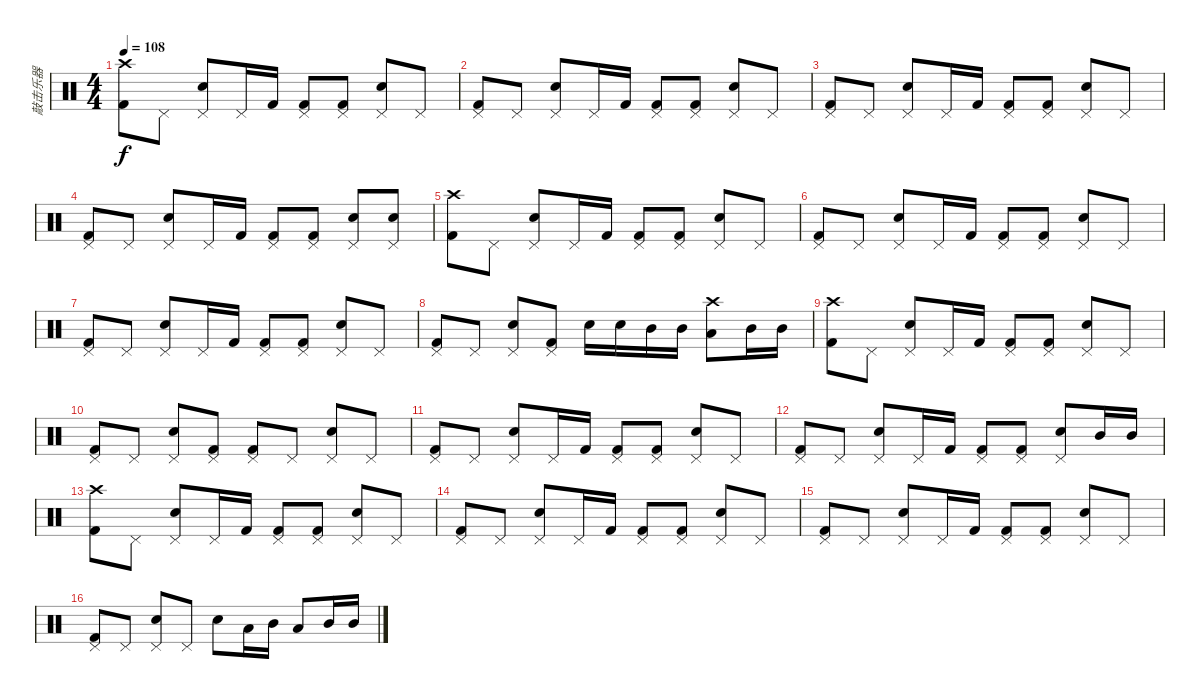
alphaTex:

\track ("敲击乐器" "敲击乐器") {instrument percussion}
\staff {score}
\articulation defaults
\ts (4 4)
\tempo 108
\clef neutral
\ks c
("Crash high (hit)" "Kick (hit) 2").8{dy f} "Pedal Hi-Hat (hit)".8 ("Pedal Hi-Hat (hit)" "Electric Snare (hit)").8 "Pedal Hi-Hat (hit)".16 "Kick (hit) 2".16 ("Pedal Hi-Hat (hit)" "Kick (hit) 2").8 ("Pedal Hi-Hat (hit)" "Kick (hit) 2").8 ("Pedal Hi-Hat (hit)" "Electric Snare (hit)").8 "Pedal Hi-Hat (hit)".8 |
("Pedal Hi-Hat (hit)" "Kick (hit) 2").8 "Pedal Hi-Hat (hit)".8 ("Pedal Hi-Hat (hit)" "Electric Snare (hit)").8 "Pedal Hi-Hat (hit)".16 "Kick (hit) 2".16 ("Pedal Hi-Hat (hit)" "Kick (hit) 2").8 ("Pedal Hi-Hat (hit)" "Kick (hit) 2").8 ("Pedal Hi-Hat (hit)" "Electric Snare (hit)").8 "Pedal Hi-Hat (hit)".8 |
("Pedal Hi-Hat (hit)" "Kick (hit) 2").8 "Pedal Hi-Hat (hit)".8 ("Pedal Hi-Hat (hit)" "Electric Snare (hit)").8 "Pedal Hi-Hat (hit)".16 "Kick (hit) 2".16 ("Pedal Hi-Hat (hit)" "Kick (hit) 2").8 ("Pedal Hi-Hat (hit)" "Kick (hit) 2").8 ("Pedal Hi-Hat (hit)" "Electric Snare (hit)").8 "Pedal Hi-Hat (hit)".8 |
("Pedal Hi-Hat (hit)" "Kick (hit) 2").8 "Pedal Hi-Hat (hit)".8 ("Pedal Hi-Hat (hit)" "Electric Snare (hit)").8 "Pedal Hi-Hat (hit)".16 "Kick (hit) 2".16 ("Pedal Hi-Hat (hit)" "Kick (hit) 2").8 ("Pedal Hi-Hat (hit)" "Kick (hit) 2").8 ("Pedal Hi-Hat (hit)" "Electric Snare (hit)").8 ("Pedal Hi-Hat (hit)" "Electric Snare (hit)").8 |
("Crash high (hit)" "Kick (hit) 2").8 "Pedal Hi-Hat (hit)".8 ("Pedal Hi-Hat (hit)" "Electric Snare (hit)").8 "Pedal Hi-Hat (hit)".16 "Kick (hit) 2".16 ("Pedal Hi-Hat (hit)" "Kick (hit) 2").8 ("Pedal Hi-Hat (hit)" "Kick (hit) 2").8 ("Pedal Hi-Hat (hit)" "Electric Snare (hit)").8 "Pedal Hi-Hat (hit)".8 |
("Pedal Hi-Hat (hit)" "Kick (hit) 2").8 "Pedal Hi-Hat (hit)".8 ("Pedal Hi-Hat (hit)" "Electric Snare (hit)").8 "Pedal Hi-Hat (hit)".16 "Kick (hit) 2".16 ("Pedal Hi-Hat (hit)" "Kick (hit) 2").8 ("Pedal Hi-Hat (hit)" "Kick (hit) 2").8 ("Pedal Hi-Hat (hit)" "Electric Snare (hit)").8 "Pedal Hi-Hat (hit)".8 |
("Pedal Hi-Hat (hit)" "Kick (hit) 2").8 "Pedal Hi-Hat (hit)".8 ("Pedal Hi-Hat (hit)" "Electric Snare (hit)").8 "Pedal Hi-Hat (hit)".16 "Kick (hit) 2".16 ("Pedal Hi-Hat (hit)" "Kick (hit) 2").8 ("Pedal Hi-Hat (hit)" "Kick (hit) 2").8 ("Pedal Hi-Hat (hit)" "Electric Snare (hit)").8 "Pedal Hi-Hat (hit)".8 |
("Pedal Hi-Hat (hit)" "Kick (hit) 2").8 "Pedal Hi-Hat (hit)".8 ("Pedal Hi-Hat (hit)" "Electric Snare (hit)").8 ("Pedal Hi-Hat (hit)" "Kick (hit) 2").8 "Electric Snare (hit)".16 "Electric Snare (hit)".16 "Mid Tom (hit)".16 "Mid Tom (hit)".16 ("Low Tom (hit)" "Crash high (hit)").8 "Mid Tom (hit)".16 "Mid Tom (hit)".16 |
("Crash high (hit)" "Kick (hit) 2").8 "Pedal Hi-Hat (hit)".8 ("Pedal Hi-Hat (hit)" "Electric Snare (hit)").8 "Pedal Hi-Hat (hit)".16 "Kick (hit) 2".16 ("Pedal Hi-Hat (hit)" "Kick (hit) 2").8 ("Pedal Hi-Hat (hit)" "Kick (hit) 2").8 ("Pedal Hi-Hat (hit)" "Electric Snare (hit)").8 "Pedal Hi-Hat (hit)".8 |
("Pedal Hi-Hat (hit)" "Kick (hit) 2").8 "Pedal Hi-Hat (hit)".8 ("Pedal Hi-Hat (hit)" "Electric Snare (hit)").8 ("Pedal Hi-Hat (hit)" "Kick (hit) 2").8 ("Pedal Hi-Hat (hit)" "Kick (hit) 2").8 "Pedal Hi-Hat (hit)".8 ("Pedal Hi-Hat (hit)" "Electric Snare (hit)").8 "Pedal Hi-Hat (hit)".8 |
("Pedal Hi-Hat (hit)" "Kick (hit) 2").8 "Pedal Hi-Hat (hit)".8 ("Pedal Hi-Hat (hit)" "Electric Snare (hit)").8 "Pedal Hi-Hat (hit)".16 "Kick (hit) 2".16 ("Pedal Hi-Hat (hit)" "Kick (hit) 2").8 ("Pedal Hi-Hat (hit)" "Kick (hit) 2").8 ("Pedal Hi-Hat (hit)" "Electric Snare (hit)").8 "Pedal Hi-Hat (hit)".8 |
("Pedal Hi-Hat (hit)" "Kick (hit) 2").8 "Pedal Hi-Hat (hit)".8 ("Pedal Hi-Hat (hit)" "Electric Snare (hit)").8 "Pedal Hi-Hat (hit)".16 "Kick (hit) 2".16 ("Pedal Hi-Hat (hit)" "Kick (hit) 2").8 ("Pedal Hi-Hat (hit)" "Kick (hit) 2").8 ("Electric Snare (hit)" "Pedal Hi-Hat (hit)").8 "Mid Tom (hit)".16 "Mid Tom (hit)".16 |
("Crash high (hit)" "Kick (hit) 2").8 "Pedal Hi-Hat (hit)".8 ("Pedal Hi-Hat (hit)" "Electric Snare (hit)").8 "Pedal Hi-Hat (hit)".16 "Kick (hit) 2".16 ("Pedal Hi-Hat (hit)" "Kick (hit) 2").8 ("Pedal Hi-Hat (hit)" "Kick (hit) 2").8 ("Pedal Hi-Hat (hit)" "Electric Snare (hit)").8 "Pedal Hi-Hat (hit)".8 |
("Pedal Hi-Hat (hit)" "Kick (hit) 2").8 "Pedal Hi-Hat (hit)".8 ("Pedal Hi-Hat (hit)" "Electric Snare (hit)").8 "Pedal Hi-Hat (hit)".16 "Kick (hit) 2".16 ("Pedal Hi-Hat (hit)" "Kick (hit) 2").8 ("Pedal Hi-Hat (hit)" "Kick (hit) 2").8 ("Pedal Hi-Hat (hit)" "Electric Snare (hit)").8 "Pedal Hi-Hat (hit)".8 |
("Pedal Hi-Hat (hit)" "Kick (hit) 2").8 "Pedal Hi-Hat (hit)".8 ("Pedal Hi-Hat (hit)" "Electric Snare (hit)").8 "Pedal Hi-Hat (hit)".16 "Kick (hit) 2".16 ("Pedal Hi-Hat (hit)" "Kick (hit) 2").8 ("Pedal Hi-Hat (hit)" "Kick (hit) 2").8 ("Pedal Hi-Hat (hit)" "Electric Snare (hit)").8 "Pedal Hi-Hat (hit)".8 |
("Pedal Hi-Hat (hit)" "Kick (hit) 2").8 "Pedal Hi-Hat (hit)".8 ("Pedal Hi-Hat (hit)" "Electric Snare (hit)").8 "Pedal Hi-Hat (hit)".8 "Electric Snare (hit)".8 "Low Tom (hit)".16 "Mid Tom (hit)".16 "Low Tom (hit)".8 "Mid Tom (hit)".16 "Mid Tom (hit)".16
